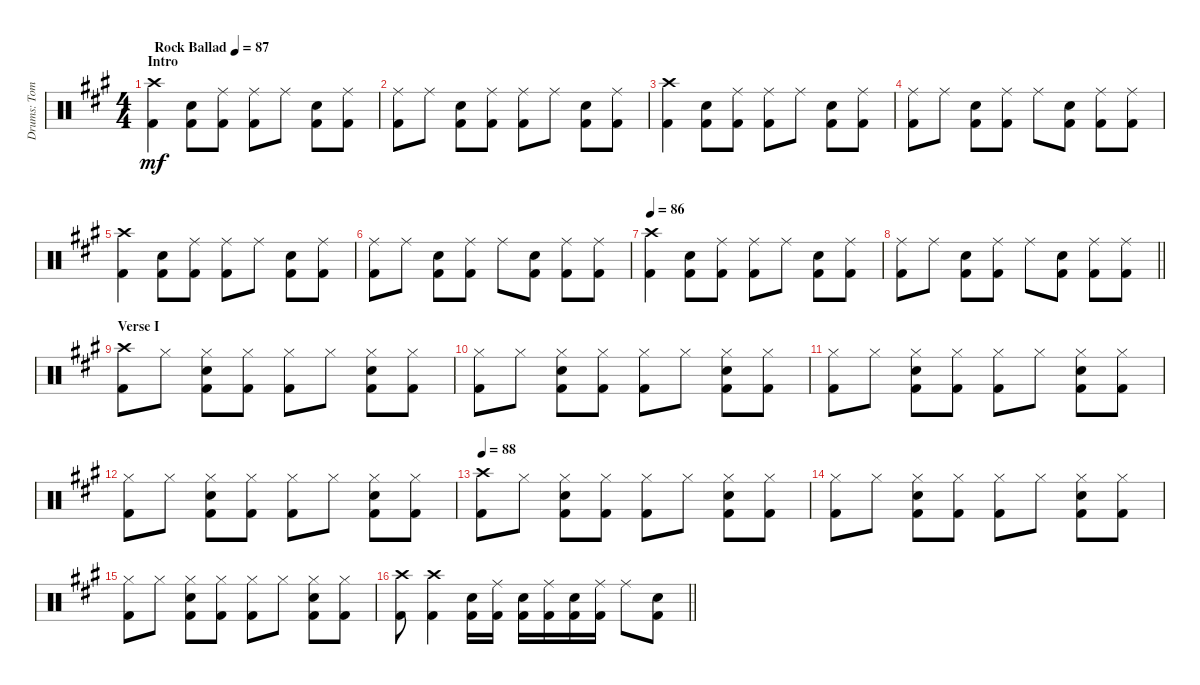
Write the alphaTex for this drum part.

\track ("Drums: Tom" "Drums: Tom") {instrument percussion}
\staff {score}
\articulation defaults
\ts (4 4)
\section ("" "Intro")
\tempo (87 "Rock Ballad")
\tempo 84
\tempo (87 "Rock Ballad")
\clef neutral
\ks a
("Crash high (hit)" "Kick (hit) 2").4{dy mf} ("Electric Snare (hit)" "Kick (hit) 2").8 ("Ride (middle)" "Kick (hit) 2").8 ("Ride (middle)" "Kick (hit) 2").8 "Ride (middle)".8 ("Electric Snare (hit)" "Kick (hit) 2").8 ("Ride (middle)" "Kick (hit) 2").8 |
("Ride (middle)" "Kick (hit) 2").8 "Ride (middle)".8 ("Electric Snare (hit)" "Kick (hit) 2").8 ("Ride (middle)" "Kick (hit) 2").8 ("Ride (middle)" "Kick (hit) 2").8 "Ride (middle)".8 ("Electric Snare (hit)" "Kick (hit) 2").8 ("Ride (middle)" "Kick (hit) 2").8 |
("Crash high (hit)" "Kick (hit) 2").4 ("Electric Snare (hit)" "Kick (hit) 2").8 ("Ride (middle)" "Kick (hit) 2").8 ("Ride (middle)" "Kick (hit) 2").8 "Ride (middle)".8 ("Electric Snare (hit)" "Kick (hit) 2").8 ("Ride (middle)" "Kick (hit) 2").8 |
("Ride (middle)" "Kick (hit) 2").8 "Ride (middle)".8 ("Electric Snare (hit)" "Kick (hit) 2").8 ("Ride (middle)" "Kick (hit) 2").8 "Ride (middle)".8 ("Electric Snare (hit)" "Kick (hit) 2").8 ("Ride (middle)" "Kick (hit) 2").8 ("Ride (middle)" "Kick (hit) 2").8 |
("Crash high (hit)" "Kick (hit) 2").4 ("Electric Snare (hit)" "Kick (hit) 2").8 ("Ride (middle)" "Kick (hit) 2").8 ("Ride (middle)" "Kick (hit) 2").8 "Ride (middle)".8 ("Electric Snare (hit)" "Kick (hit) 2").8 ("Ride (middle)" "Kick (hit) 2").8 |
("Ride (middle)" "Kick (hit) 2").8 "Ride (middle)".8 ("Electric Snare (hit)" "Kick (hit) 2").8 ("Ride (middle)" "Kick (hit) 2").8 "Ride (middle)".8 ("Electric Snare (hit)" "Kick (hit) 2").8 ("Ride (middle)" "Kick (hit) 2").8 ("Ride (middle)" "Kick (hit) 2").8 |
\tempo 86
("Crash high (hit)" "Kick (hit) 2").4 ("Electric Snare (hit)" "Kick (hit) 2").8 ("Ride (middle)" "Kick (hit) 2").8 ("Ride (middle)" "Kick (hit) 2").8 "Ride (middle)".8 ("Electric Snare (hit)" "Kick (hit) 2").8 ("Ride (middle)" "Kick (hit) 2").8 |
\barLineRight lightlight
("Ride (middle)" "Kick (hit) 2").8 "Ride (middle)".8 ("Electric Snare (hit)" "Kick (hit) 2").8 ("Ride (middle)" "Kick (hit) 2").8 "Ride (middle)".8 ("Electric Snare (hit)" "Kick (hit) 2").8 ("Ride (middle)" "Kick (hit) 2").8 ("Ride (middle)" "Kick (hit) 2").8 |
\section ("" "Verse I")
("Crash high (hit)" "Kick (hit) 2").8 "Hi-Hat (closed)".8 ("Hi-Hat (closed)" "Electric Snare (hit)" "Kick (hit) 2").8 ("Hi-Hat (closed)" "Kick (hit) 2").8 ("Hi-Hat (closed)" "Kick (hit) 2").8 "Hi-Hat (closed)".8 ("Hi-Hat (closed)" "Electric Snare (hit)" "Kick (hit) 2").8 ("Hi-Hat (closed)" "Kick (hit) 2").8 |
("Hi-Hat (closed)" "Kick (hit) 2").8 "Hi-Hat (closed)".8 ("Hi-Hat (closed)" "Electric Snare (hit)" "Kick (hit) 2").8 ("Hi-Hat (closed)" "Kick (hit) 2").8 ("Hi-Hat (closed)" "Kick (hit) 2").8 "Hi-Hat (closed)".8 ("Hi-Hat (closed)" "Electric Snare (hit)" "Kick (hit) 2").8 ("Hi-Hat (closed)" "Kick (hit) 2").8 |
("Hi-Hat (closed)" "Kick (hit) 2").8 "Hi-Hat (closed)".8 ("Hi-Hat (closed)" "Electric Snare (hit)" "Kick (hit) 2").8 ("Hi-Hat (closed)" "Kick (hit) 2").8 ("Hi-Hat (closed)" "Kick (hit) 2").8 "Hi-Hat (closed)".8 ("Hi-Hat (closed)" "Electric Snare (hit)" "Kick (hit) 2").8 ("Hi-Hat (closed)" "Kick (hit) 2").8 |
("Hi-Hat (closed)" "Kick (hit) 2").8 "Hi-Hat (closed)".8 ("Hi-Hat (closed)" "Electric Snare (hit)" "Kick (hit) 2").8 ("Hi-Hat (closed)" "Kick (hit) 2").8 ("Hi-Hat (closed)" "Kick (hit) 2").8 "Hi-Hat (closed)".8 ("Hi-Hat (closed)" "Electric Snare (hit)" "Kick (hit) 2").8 ("Hi-Hat (closed)" "Kick (hit) 2").8 |
\tempo 88
("Crash high (hit)" "Kick (hit) 2").8 "Hi-Hat (closed)".8 ("Hi-Hat (closed)" "Electric Snare (hit)" "Kick (hit) 2").8 ("Hi-Hat (closed)" "Kick (hit) 2").8 ("Hi-Hat (closed)" "Kick (hit) 2").8 "Hi-Hat (closed)".8 ("Hi-Hat (closed)" "Electric Snare (hit)" "Kick (hit) 2").8 ("Hi-Hat (closed)" "Kick (hit) 2").8 |
("Hi-Hat (closed)" "Kick (hit) 2").8 "Hi-Hat (closed)".8 ("Hi-Hat (closed)" "Electric Snare (hit)" "Kick (hit) 2").8 ("Hi-Hat (closed)" "Kick (hit) 2").8 ("Hi-Hat (closed)" "Kick (hit) 2").8 "Hi-Hat (closed)".8 ("Hi-Hat (closed)" "Electric Snare (hit)" "Kick (hit) 2").8 ("Hi-Hat (closed)" "Kick (hit) 2").8 |
("Hi-Hat (closed)" "Kick (hit) 2").8 "Hi-Hat (closed)".8 ("Hi-Hat (closed)" "Electric Snare (hit)" "Kick (hit) 2").8 ("Hi-Hat (closed)" "Kick (hit) 2").8 ("Hi-Hat (closed)" "Kick (hit) 2").8 "Hi-Hat (closed)".8 ("Hi-Hat (closed)" "Electric Snare (hit)" "Kick (hit) 2").8 ("Hi-Hat (closed)" "Kick (hit) 2").8 |
\barLineRight lightlight
("Crash high (hit)" "Kick (hit) 2").8 ("Crash high (hit)" "Kick (hit) 2").4 ("Electric Snare (hit)" "Kick (hit) 2").16 ("Ride (middle)" "Kick (hit) 2").16 ("Electric Snare (hit)" "Kick (hit) 2").16 ("Ride (middle)" "Kick (hit) 2").16 ("Electric Snare (hit)" "Kick (hit) 2").16 ("Ride (middle)" "Kick (hit) 2").16 "Ride (middle)".8 ("Electric Snare (hit)" "Kick (hit) 2").8
